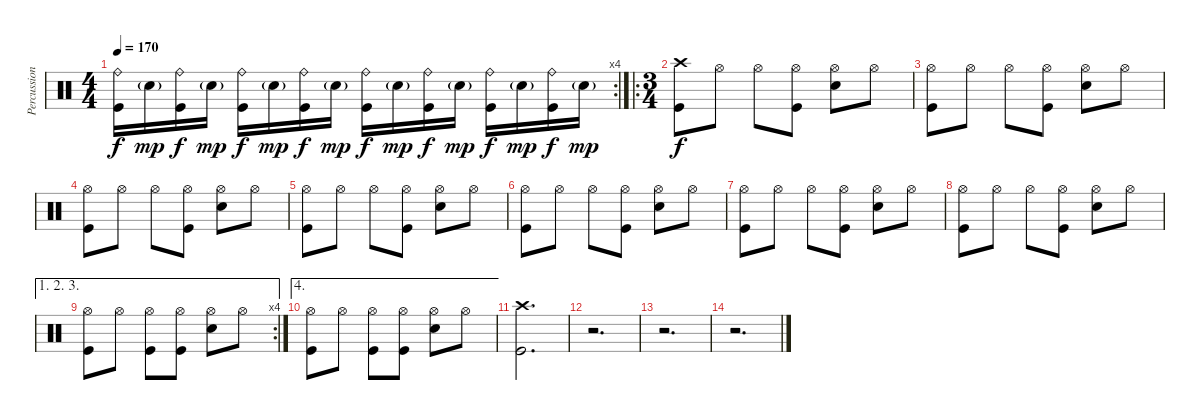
\track ("Percussion" "Percussion") {instrument percussion}
\staff {score}
\articulation defaults
\rc 4
\ts (4 4)
\tempo 170
\clef neutral
\ks c
("Ride (bell)" "Kick (hit)").16{dy f} "Snare (hit) 2"{g}.16{dy mp} ("Ride (bell)" "Kick (hit)").16{dy f} "Snare (hit) 2"{g}.16{dy mp} ("Ride (bell)" "Kick (hit)").16{dy f} "Snare (hit) 2"{g}.16{dy mp} ("Ride (bell)" "Kick (hit)").16{dy f} "Snare (hit) 2"{g}.16{dy mp} ("Ride (bell)" "Kick (hit)").16{dy f} "Snare (hit) 2"{g}.16{dy mp} ("Ride (bell)" "Kick (hit)").16{dy f} "Snare (hit) 2"{g}.16{dy mp} ("Ride (bell)" "Kick (hit)").16{dy f} "Snare (hit) 2"{g}.16{dy mp} ("Ride (bell)" "Kick (hit)").16{dy f} "Snare (hit) 2"{g}.16{dy mp} |
\ro
\ts (3 4)
("Crash high (hit)" "Kick (hit)").8{dy f} "Hi-Hat (open)".8 "Hi-Hat (open)".8 ("Hi-Hat (open)" "Kick (hit)").8 ("Hi-Hat (open)" "Snare (hit) 2").8 "Hi-Hat (open)".8 |
("Hi-Hat (open)" "Kick (hit)").8 "Hi-Hat (open)".8 "Hi-Hat (open)".8 ("Hi-Hat (open)" "Kick (hit)").8 ("Hi-Hat (open)" "Snare (hit) 2").8 "Hi-Hat (open)".8 |
("Hi-Hat (open)" "Kick (hit)").8 "Hi-Hat (open)".8 "Hi-Hat (open)".8 ("Hi-Hat (open)" "Kick (hit)").8 ("Hi-Hat (open)" "Snare (hit) 2").8 "Hi-Hat (open)".8 |
("Hi-Hat (open)" "Kick (hit)").8 "Hi-Hat (open)".8 "Hi-Hat (open)".8 ("Hi-Hat (open)" "Kick (hit)").8 ("Hi-Hat (open)" "Snare (hit) 2").8 "Hi-Hat (open)".8 |
("Hi-Hat (open)" "Kick (hit)").8 "Hi-Hat (open)".8 "Hi-Hat (open)".8 ("Hi-Hat (open)" "Kick (hit)").8 ("Hi-Hat (open)" "Snare (hit) 2").8 "Hi-Hat (open)".8 |
("Hi-Hat (open)" "Kick (hit)").8 "Hi-Hat (open)".8 "Hi-Hat (open)".8 ("Hi-Hat (open)" "Kick (hit)").8 ("Hi-Hat (open)" "Snare (hit) 2").8 "Hi-Hat (open)".8 |
("Hi-Hat (open)" "Kick (hit)").8 "Hi-Hat (open)".8 "Hi-Hat (open)".8 ("Hi-Hat (open)" "Kick (hit)").8 ("Hi-Hat (open)" "Snare (hit) 2").8 "Hi-Hat (open)".8 |
\ae (1 2 3)
\rc 4
("Hi-Hat (open)" "Kick (hit)").8 "Hi-Hat (open)".8 ("Hi-Hat (open)" "Kick (hit)").8 ("Hi-Hat (open)" "Kick (hit)").8 ("Hi-Hat (open)" "Snare (hit) 2").8 "Hi-Hat (open)".8 |
\ae 4
("Hi-Hat (open)" "Kick (hit)").8 "Hi-Hat (open)".8 ("Hi-Hat (open)" "Kick (hit)").8 ("Hi-Hat (open)" "Kick (hit)").8 ("Hi-Hat (open)" "Snare (hit) 2").8 "Hi-Hat (open)".8 |
("Crash high (hit)" "Kick (hit)").2{d} |
r.2{d} |
r.2{d} |
r.2{d}
